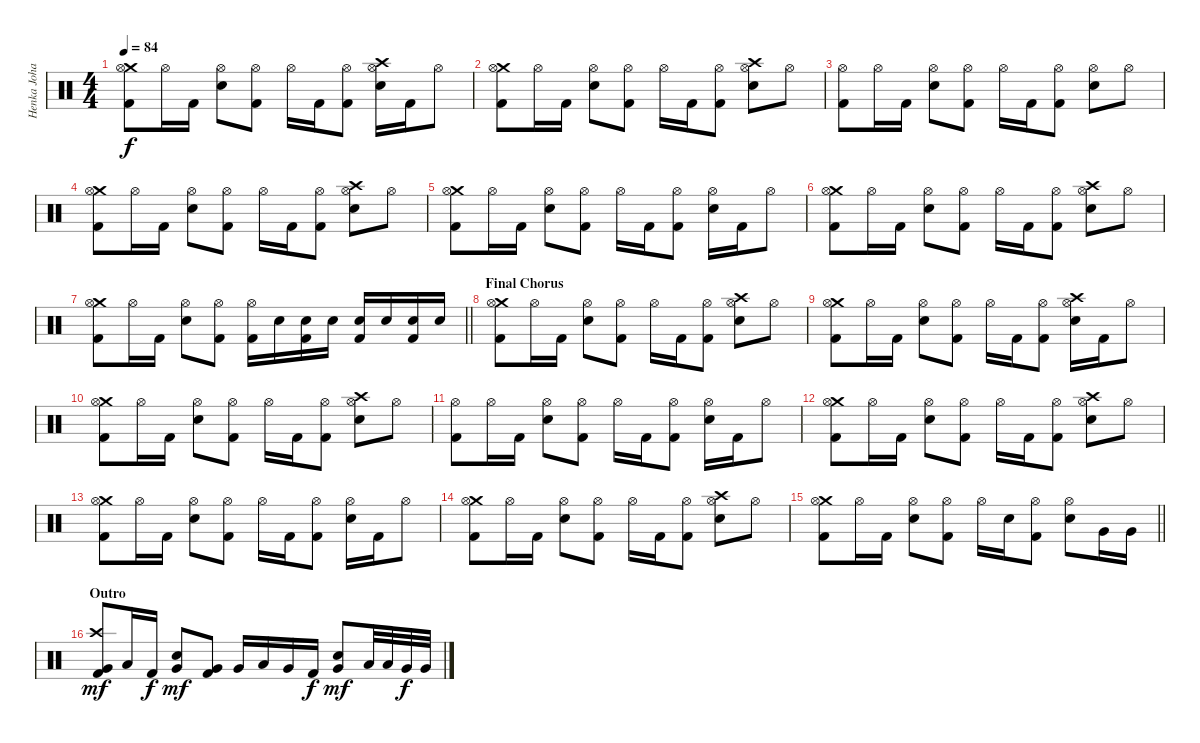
\track ("Henka Johansson" "Henka Joha") {instrument percussion}
\staff {score}
\articulation defaults
\ts (4 4)
\tempo 84
\clef neutral
\ks c
("Crash medium (hit)" "Hi-Hat (open)" "Kick (hit) 2").8{dy f} "Hi-Hat (open)".16 "Kick (hit) 2".16 ("Hi-Hat (open)" "Electric Snare (hit)").8 ("Hi-Hat (open)" "Kick (hit) 2").8 "Hi-Hat (open)".16 "Kick (hit) 2".16 ("Hi-Hat (open)" "Kick (hit) 2").8 ("Crash high (hit)" "Hi-Hat (open)" "Electric Snare (hit)").16 "Kick (hit) 2".16 "Hi-Hat (open)".8 |
("Crash medium (hit)" "Hi-Hat (open)" "Kick (hit) 2").8 "Hi-Hat (open)".16 "Kick (hit) 2".16 ("Hi-Hat (open)" "Electric Snare (hit)").8 ("Hi-Hat (open)" "Kick (hit) 2").8 "Hi-Hat (open)".16 "Kick (hit) 2".16 ("Hi-Hat (open)" "Kick (hit) 2").8 ("Crash high (hit)" "Hi-Hat (open)" "Electric Snare (hit)").8 "Hi-Hat (open)".8 |
("Hi-Hat (open)" "Kick (hit) 2").8 "Hi-Hat (open)".16 "Kick (hit) 2".16 ("Hi-Hat (open)" "Electric Snare (hit)").8 ("Hi-Hat (open)" "Kick (hit) 2").8 "Hi-Hat (open)".16 "Kick (hit) 2".16 ("Hi-Hat (open)" "Kick (hit) 2").8 ("Hi-Hat (open)" "Electric Snare (hit)").8 "Hi-Hat (open)".8 |
("Crash medium (hit)" "Hi-Hat (open)" "Kick (hit) 2").8 "Hi-Hat (open)".16 "Kick (hit) 2".16 ("Hi-Hat (open)" "Electric Snare (hit)").8 ("Hi-Hat (open)" "Kick (hit) 2").8 "Hi-Hat (open)".16 "Kick (hit) 2".16 ("Hi-Hat (open)" "Kick (hit) 2").8 ("Crash high (hit)" "Hi-Hat (open)" "Electric Snare (hit)").8 "Hi-Hat (open)".8 |
("Crash medium (hit)" "Hi-Hat (open)" "Kick (hit) 2").8 "Hi-Hat (open)".16 "Kick (hit) 2".16 ("Hi-Hat (open)" "Electric Snare (hit)").8 ("Hi-Hat (open)" "Kick (hit) 2").8 "Hi-Hat (open)".16 "Kick (hit) 2".16 ("Hi-Hat (open)" "Kick (hit) 2").8 ("Hi-Hat (open)" "Electric Snare (hit)").16 "Kick (hit) 2".16 "Hi-Hat (open)".8 |
("Crash medium (hit)" "Hi-Hat (open)" "Kick (hit) 2").8 "Hi-Hat (open)".16 "Kick (hit) 2".16 ("Hi-Hat (open)" "Electric Snare (hit)").8 ("Hi-Hat (open)" "Kick (hit) 2").8 "Hi-Hat (open)".16 "Kick (hit) 2".16 ("Hi-Hat (open)" "Kick (hit) 2").8 ("Crash high (hit)" "Hi-Hat (open)" "Electric Snare (hit)").8 "Hi-Hat (open)".8 |
\barLineRight lightlight
("Crash medium (hit)" "Hi-Hat (open)" "Kick (hit) 2").8 "Hi-Hat (open)".16 "Kick (hit) 2".16 ("Hi-Hat (open)" "Electric Snare (hit)").8 ("Hi-Hat (open)" "Kick (hit) 2").8 ("Hi-Hat (open)" "Kick (hit) 2").16 "Electric Snare (hit)".16 ("Electric Snare (hit)" "Kick (hit) 2").16 "Electric Snare (hit)".16 ("Electric Snare (hit)" "Kick (hit) 2").16 "Electric Snare (hit)".16 ("Electric Snare (hit)" "Kick (hit) 2").16 "Electric Snare (hit)".16 |
\section ("" "Final Chorus")
("Crash medium (hit)" "Hi-Hat (open)" "Kick (hit) 2").8 "Hi-Hat (open)".16 "Kick (hit) 2".16 ("Hi-Hat (open)" "Electric Snare (hit)").8 ("Hi-Hat (open)" "Kick (hit) 2").8 "Hi-Hat (open)".16 "Kick (hit) 2".16 ("Hi-Hat (open)" "Kick (hit) 2").8 ("Crash high (hit)" "Hi-Hat (open)" "Electric Snare (hit)").8 "Hi-Hat (open)".8 |
("Crash medium (hit)" "Hi-Hat (open)" "Kick (hit) 2").8 "Hi-Hat (open)".16 "Kick (hit) 2".16 ("Hi-Hat (open)" "Electric Snare (hit)").8 ("Hi-Hat (open)" "Kick (hit) 2").8 "Hi-Hat (open)".16 "Kick (hit) 2".16 ("Hi-Hat (open)" "Kick (hit) 2").8 ("Crash high (hit)" "Hi-Hat (open)" "Electric Snare (hit)").16 "Kick (hit) 2".16 "Hi-Hat (open)".8 |
("Crash medium (hit)" "Hi-Hat (open)" "Kick (hit) 2").8 "Hi-Hat (open)".16 "Kick (hit) 2".16 ("Hi-Hat (open)" "Electric Snare (hit)").8 ("Hi-Hat (open)" "Kick (hit) 2").8 "Hi-Hat (open)".16 "Kick (hit) 2".16 ("Hi-Hat (open)" "Kick (hit) 2").8 ("Crash high (hit)" "Hi-Hat (open)" "Electric Snare (hit)").8 "Hi-Hat (open)".8 |
("Hi-Hat (open)" "Kick (hit) 2").8 "Hi-Hat (open)".16 "Kick (hit) 2".16 ("Hi-Hat (open)" "Electric Snare (hit)").8 ("Hi-Hat (open)" "Kick (hit) 2").8 "Hi-Hat (open)".16 "Kick (hit) 2".16 ("Hi-Hat (open)" "Kick (hit) 2").8 ("Hi-Hat (open)" "Electric Snare (hit)").16 "Kick (hit) 2".16 "Hi-Hat (open)".8 |
("Crash medium (hit)" "Hi-Hat (open)" "Kick (hit) 2").8 "Hi-Hat (open)".16 "Kick (hit) 2".16 ("Hi-Hat (open)" "Electric Snare (hit)").8 ("Hi-Hat (open)" "Kick (hit) 2").8 "Hi-Hat (open)".16 "Kick (hit) 2".16 ("Hi-Hat (open)" "Kick (hit) 2").8 ("Crash high (hit)" "Hi-Hat (open)" "Electric Snare (hit)").8 "Hi-Hat (open)".8 |
("Crash medium (hit)" "Hi-Hat (open)" "Kick (hit) 2").8 "Hi-Hat (open)".16 "Kick (hit) 2".16 ("Hi-Hat (open)" "Electric Snare (hit)").8 ("Hi-Hat (open)" "Kick (hit) 2").8 "Hi-Hat (open)".16 "Kick (hit) 2".16 ("Hi-Hat (open)" "Kick (hit) 2").8 ("Hi-Hat (open)" "Electric Snare (hit)").16 "Kick (hit) 2".16 "Hi-Hat (open)".8 |
("Crash medium (hit)" "Hi-Hat (open)" "Kick (hit) 2").8 "Hi-Hat (open)".16 "Kick (hit) 2".16 ("Hi-Hat (open)" "Electric Snare (hit)").8 ("Hi-Hat (open)" "Kick (hit) 2").8 "Hi-Hat (open)".16 "Kick (hit) 2".16 ("Hi-Hat (open)" "Kick (hit) 2").8 ("Crash high (hit)" "Hi-Hat (open)" "Electric Snare (hit)").8 "Hi-Hat (open)".8 |
\barLineRight lightlight
("Crash medium (hit)" "Hi-Hat (open)" "Kick (hit) 2").8 "Hi-Hat (open)".16 "Kick (hit) 2".16 ("Hi-Hat (open)" "Electric Snare (hit)").8 ("Hi-Hat (open)" "Kick (hit) 2").8 "Hi-Hat (open)".16 "Electric Snare (hit)".16 ("Hi-Hat (open)" "Kick (hit) 2").8 ("Hi-Hat (open)" "Electric Snare (hit)").8 "Very Low Tom (hit)".16 "Very Low Tom (hit)".16 |
\section ("" "Outro")
("Crash high (hit)" "Very Low Tom (hit)" "Kick (hit) 2").8{dy mf} "Low Tom (hit)".16 "Kick (hit) 2".16{dy f} ("Very Low Tom (hit)" "Electric Snare (hit)").8{dy mf} ("Very Low Tom (hit)" "Kick (hit) 2").8 "Very Low Tom (hit)".16 "Low Tom (hit)".16 "Very Low Tom (hit)".16 "Kick (hit) 2".16{dy f} ("Very Low Tom (hit)" "Electric Snare (hit)").8{dy mf} "Low Tom (hit)".32 "Low Tom (hit)".32 "Very Low Tom (hit)".32{dy f} "Very Low Tom (hit)".32
